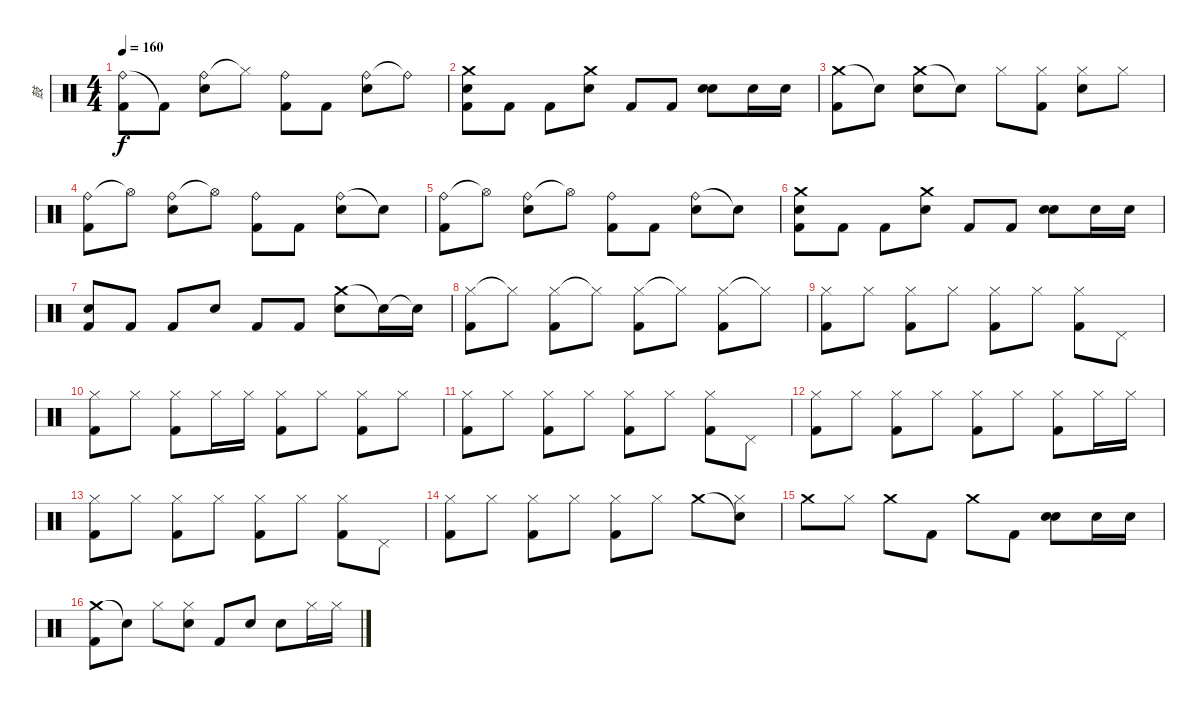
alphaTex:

\track ("鼓" "鼓") {instrument percussion}
\staff {score}
\articulation defaults
\ts (4 4)
\tempo 160
\clef neutral
\ks c
("Ride (bell)" "Kick (hit) 2").8{dy f} "Kick (hit) 2"{t}.8 ("Ride (bell)" "Electric Snare (hit)").8 "Hi-Hat (closed)"{t}.8 ("Ride (bell)" "Kick (hit) 2").8 "Kick (hit) 2".8 ("Ride (bell)" "Electric Snare (hit)").8 "Ride (bell)"{t}.8 |
("Crash medium (hit)" "Electric Snare (hit)" "Kick (hit) 2").8 "Kick (hit) 2".8 "Kick (hit) 2".8 ("Crash medium (hit)" "Electric Snare (hit)").8 "Kick (hit) 2".8 "Kick (hit) 2".8 ("Electric Snare (hit)" "Electric Snare (hit)").8 "Electric Snare (hit)".16 "Electric Snare (hit)".16 |
("Crash medium (hit)" "Kick (hit) 2").8 "Snare (hit)"{t}.8 ("Crash medium (hit)" "Electric Snare (hit)").8 "Snare (hit)"{t}.8 "Hi-Hat (closed)".8 ("Hi-Hat (closed)" "Kick (hit) 2").8 ("Hi-Hat (closed)" "Electric Snare (hit)").8 "Hi-Hat (closed)".8 |
("Ride (bell)" "Kick (hit) 2").8 "Hi-Hat (open)"{t}.8 ("Ride (bell)" "Electric Snare (hit)").8 "Hi-Hat (open)"{t}.8 ("Ride (bell)" "Kick (hit) 2").8 "Kick (hit) 2".8 ("Ride (bell)" "Electric Snare (hit)").8 "Snare (hit)"{t}.8 |
("Ride (bell)" "Kick (hit) 2").8 "Hi-Hat (open)"{t}.8 ("Ride (bell)" "Electric Snare (hit)").8 "Hi-Hat (open)"{t}.8 ("Ride (bell)" "Kick (hit) 2").8 "Kick (hit) 2".8 ("Ride (bell)" "Electric Snare (hit)").8 "Snare (hit)"{t}.8 |
("Crash medium (hit)" "Electric Snare (hit)" "Kick (hit) 2").8 "Kick (hit) 2".8 "Kick (hit) 2".8 ("Crash medium (hit)" "Electric Snare (hit)").8 "Kick (hit) 2".8 "Kick (hit) 2".8 ("Electric Snare (hit)" "Electric Snare (hit)").8 "Electric Snare (hit)".16 "Electric Snare (hit)".16 |
("Electric Snare (hit)" "Kick (hit) 2").8 "Kick (hit) 2".8 "Kick (hit) 2".8 "Electric Snare (hit)".8 "Kick (hit) 2".8 "Kick (hit) 2".8 ("Crash medium (hit)" "Electric Snare (hit)").8 "Snare (hit) 2"{t}.16 "Snare (hit) 2"{t}.16 |
("Hi-Hat (closed)" "Kick (hit) 2").8 "Hi-Hat (closed)"{t}.8 ("Hi-Hat (closed)" "Kick (hit) 2").8 "Hi-Hat (closed)"{t}.8 ("Hi-Hat (closed)" "Kick (hit) 2").8 "Hi-Hat (closed)"{t}.8 ("Hi-Hat (closed)" "Kick (hit) 2").8 "Hi-Hat (closed)"{t}.8 |
("Hi-Hat (closed)" "Kick (hit) 2").8 "Hi-Hat (closed)".8 ("Hi-Hat (closed)" "Kick (hit) 2").8 "Hi-Hat (closed)".8 ("Hi-Hat (closed)" "Kick (hit) 2").8 "Hi-Hat (closed)".8 ("Hi-Hat (closed)" "Kick (hit) 2").8 "Pedal Hi-Hat (hit)".8 |
("Hi-Hat (closed)" "Kick (hit) 2").8 "Hi-Hat (closed)".8 ("Hi-Hat (closed)" "Kick (hit) 2").8 "Hi-Hat (closed)".16 "Hi-Hat (closed)".16 ("Hi-Hat (closed)" "Kick (hit) 2").8 "Hi-Hat (closed)".8 ("Hi-Hat (closed)" "Kick (hit) 2").8 "Hi-Hat (closed)".8 |
("Hi-Hat (closed)" "Kick (hit) 2").8 "Hi-Hat (closed)".8 ("Hi-Hat (closed)" "Kick (hit) 2").8 "Hi-Hat (closed)".8 ("Hi-Hat (closed)" "Kick (hit) 2").8 "Hi-Hat (closed)".8 ("Hi-Hat (closed)" "Kick (hit) 2").8 "Pedal Hi-Hat (hit)".8 |
("Hi-Hat (closed)" "Kick (hit) 2").8 "Hi-Hat (closed)".8 ("Hi-Hat (closed)" "Kick (hit) 2").8 "Hi-Hat (closed)".8 ("Hi-Hat (closed)" "Kick (hit) 2").8 "Hi-Hat (closed)".8 ("Hi-Hat (closed)" "Kick (hit) 2").8 "Hi-Hat (closed)".16 "Hi-Hat (closed)".16 |
("Hi-Hat (closed)" "Kick (hit) 2").8 "Hi-Hat (closed)".8 ("Hi-Hat (closed)" "Kick (hit) 2").8 "Hi-Hat (closed)".8 ("Hi-Hat (closed)" "Kick (hit) 2").8 "Hi-Hat (closed)".8 ("Hi-Hat (closed)" "Kick (hit) 2").8 "Pedal Hi-Hat (hit)".8 |
("Hi-Hat (closed)" "Kick (hit) 2").8 "Hi-Hat (closed)".8 ("Hi-Hat (closed)" "Kick (hit) 2").8 "Hi-Hat (closed)".8 ("Hi-Hat (closed)" "Kick (hit) 2").8 "Hi-Hat (closed)".8 "Crash medium (hit)".8 ("Snare (hit)"{t} "Hi-Hat (closed)").8 |
"Crash medium (hit)".8 "Hi-Hat (closed)".8 "Crash medium (hit)".8 "Kick (hit) 2".8 "Crash medium (hit)".8 "Kick (hit) 2".8 ("Electric Snare (hit)" "Electric Snare (hit)").8 "Electric Snare (hit)".16 "Electric Snare (hit)".16 |
("Crash medium (hit)" "Kick (hit) 2").8 "Snare (hit)"{t}.8 "Hi-Hat (closed)".8 ("Hi-Hat (closed)" "Electric Snare (hit)").8 "Kick (hit) 2".8 "Electric Snare (hit)".8 "Electric Snare (hit)".8 "Hi-Hat (closed)".16 "Hi-Hat (closed)".16
